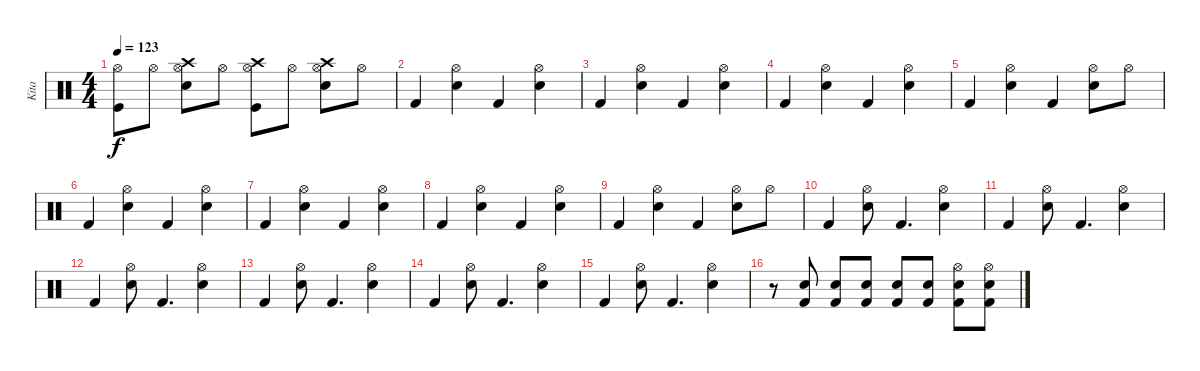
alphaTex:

\track ("Kita" "Kita") {instrument percussion}
\staff {score}
\articulation defaults
\ts (4 4)
\tempo 123
\clef neutral
\ks c
("Hi-Hat (open)" "Kick (hit)").8{dy f} "Hi-Hat (open)".8 ("Hi-Hat (open)" "Snare (hit) 2" "Crash high (hit)").8 "Hi-Hat (open)".8 ("Hi-Hat (open)" "Kick (hit)" "Crash high (hit)").8 "Hi-Hat (open)".8 ("Hi-Hat (open)" "Snare (hit) 2" "Crash high (hit)").8 "Hi-Hat (open)".8 |
"Kick (hit) 2".4 ("Hi-Hat (open)" "Snare (hit) 2").4 "Kick (hit) 2".4 ("Hi-Hat (open)" "Snare (hit) 2").4 |
"Kick (hit) 2".4 ("Hi-Hat (open)" "Snare (hit) 2").4 "Kick (hit) 2".4 ("Hi-Hat (open)" "Snare (hit) 2").4 |
"Kick (hit) 2".4 ("Hi-Hat (open)" "Snare (hit) 2").4 "Kick (hit) 2".4 ("Hi-Hat (open)" "Snare (hit) 2").4 |
"Kick (hit) 2".4 ("Hi-Hat (open)" "Snare (hit) 2").4 "Kick (hit) 2".4 ("Hi-Hat (open)" "Snare (hit) 2").8 "Hi-Hat (open)".8 |
"Kick (hit) 2".4 ("Hi-Hat (open)" "Snare (hit) 2").4 "Kick (hit) 2".4 ("Hi-Hat (open)" "Snare (hit) 2").4 |
"Kick (hit) 2".4 ("Hi-Hat (open)" "Snare (hit) 2").4 "Kick (hit) 2".4 ("Hi-Hat (open)" "Snare (hit) 2").4 |
"Kick (hit) 2".4 ("Hi-Hat (open)" "Snare (hit) 2").4 "Kick (hit) 2".4 ("Hi-Hat (open)" "Snare (hit) 2").4 |
"Kick (hit) 2".4 ("Hi-Hat (open)" "Snare (hit) 2").4 "Kick (hit) 2".4 ("Hi-Hat (open)" "Snare (hit) 2").8 "Hi-Hat (open)".8 |
"Kick (hit) 2".4 ("Hi-Hat (open)" "Snare (hit) 2").8 "Kick (hit) 2".4{d} ("Hi-Hat (open)" "Snare (hit) 2").4 |
"Kick (hit) 2".4 ("Hi-Hat (open)" "Snare (hit) 2").8 "Kick (hit) 2".4{d} ("Hi-Hat (open)" "Snare (hit) 2").4 |
"Kick (hit) 2".4 ("Hi-Hat (open)" "Snare (hit) 2").8 "Kick (hit) 2".4{d} ("Hi-Hat (open)" "Snare (hit) 2").4 |
"Kick (hit) 2".4 ("Hi-Hat (open)" "Snare (hit) 2").8 "Kick (hit) 2".4{d} ("Hi-Hat (open)" "Snare (hit) 2").4 |
"Kick (hit) 2".4 ("Hi-Hat (open)" "Snare (hit) 2").8 "Kick (hit) 2".4{d} ("Hi-Hat (open)" "Snare (hit) 2").4 |
"Kick (hit) 2".4 ("Hi-Hat (open)" "Snare (hit) 2").8 "Kick (hit) 2".4{d} ("Hi-Hat (open)" "Snare (hit) 2").4 |
r.8 ("Snare (hit) 2" "Kick (hit) 2").8 ("Snare (hit) 2" "Kick (hit) 2").8 ("Snare (hit) 2" "Kick (hit) 2").8 ("Snare (hit) 2" "Kick (hit) 2").8 ("Snare (hit) 2" "Kick (hit) 2").8 ("Snare (hit) 2" "Kick (hit) 2" "Hi-Hat (open)").8 ("Snare (hit) 2" "Kick (hit) 2" "Hi-Hat (open)").8
